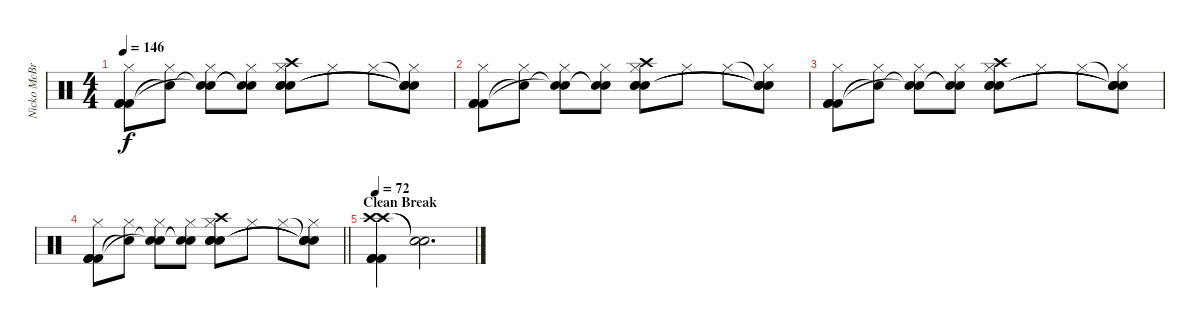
\track ("Nicko McBrain" "Nicko McBr") {instrument percussion}
\staff {score}
\articulation defaults
\ts (4 4)
\tempo 146
\clef neutral
\ks c
("Hi-Hat (closed)" "Kick (hit) 2" "Kick (hit) 2" "Kick (hit) 2").8{dy f} ("Hi-Hat (closed)" "Snare (hit)"{t}).8 ("Hi-Hat (closed)" "Snare (hit)"{t} "Snare (hit)"{t}).8 ("Hi-Hat (closed)" "Snare (hit)"{t} "Snare (hit)"{t}).8 ("Crash high (hit)" "Hi-Hat (closed)" "Snare (hit) 2" "Snare (hit) 2" "Snare (hit) 2").8 "Hi-Hat (closed)".8 "Hi-Hat (closed)".8 ("Snare (hit)"{t} "Hi-Hat (closed)" "Snare (hit)"{t} "Snare (hit)"{t} "Snare (hit)"{t}).8 |
("Hi-Hat (closed)" "Kick (hit) 2" "Kick (hit) 2" "Kick (hit) 2").8 ("Hi-Hat (closed)" "Snare (hit)"{t}).8 ("Hi-Hat (closed)" "Snare (hit)"{t} "Snare (hit)"{t}).8 ("Hi-Hat (closed)" "Snare (hit)"{t} "Snare (hit)"{t}).8 ("Crash high (hit)" "Hi-Hat (closed)" "Snare (hit) 2" "Snare (hit) 2" "Snare (hit) 2").8 "Hi-Hat (closed)".8 "Hi-Hat (closed)".8 ("Snare (hit)"{t} "Hi-Hat (closed)" "Snare (hit)"{t} "Snare (hit)"{t} "Snare (hit)"{t}).8 |
("Hi-Hat (closed)" "Kick (hit) 2" "Kick (hit) 2" "Kick (hit) 2").8 ("Hi-Hat (closed)" "Snare (hit)"{t}).8 ("Hi-Hat (closed)" "Snare (hit)"{t} "Snare (hit)"{t}).8 ("Hi-Hat (closed)" "Snare (hit)"{t} "Snare (hit)"{t}).8 ("Crash high (hit)" "Hi-Hat (closed)" "Snare (hit) 2" "Snare (hit) 2" "Snare (hit) 2").8 "Hi-Hat (closed)".8 "Hi-Hat (closed)".8 ("Snare (hit)"{t} "Hi-Hat (closed)" "Snare (hit)"{t} "Snare (hit)"{t} "Snare (hit)"{t}).8 |
\barLineRight lightlight
("Hi-Hat (closed)" "Kick (hit) 2" "Kick (hit) 2" "Kick (hit) 2").8 ("Hi-Hat (closed)" "Snare (hit)"{t}).8 ("Hi-Hat (closed)" "Snare (hit)"{t} "Snare (hit)"{t}).8 ("Hi-Hat (closed)" "Snare (hit)"{t} "Snare (hit)"{t}).8 ("Crash high (hit)" "Hi-Hat (closed)" "Snare (hit) 2" "Snare (hit) 2" "Snare (hit) 2").8 "Hi-Hat (closed)".8 "Hi-Hat (closed)".8 ("Snare (hit)"{t} "Hi-Hat (closed)" "Snare (hit)"{t} "Snare (hit)"{t} "Snare (hit)"{t}).8 |
\section ("" "Clean Break")
\tempo 72
("Crash high (hit)" "Crash high (hit)" "Kick (hit) 2" "Kick (hit) 2" "Kick (hit) 2").4 ("Snare (hit)"{t} "Snare (hit)"{t}).2{d}
